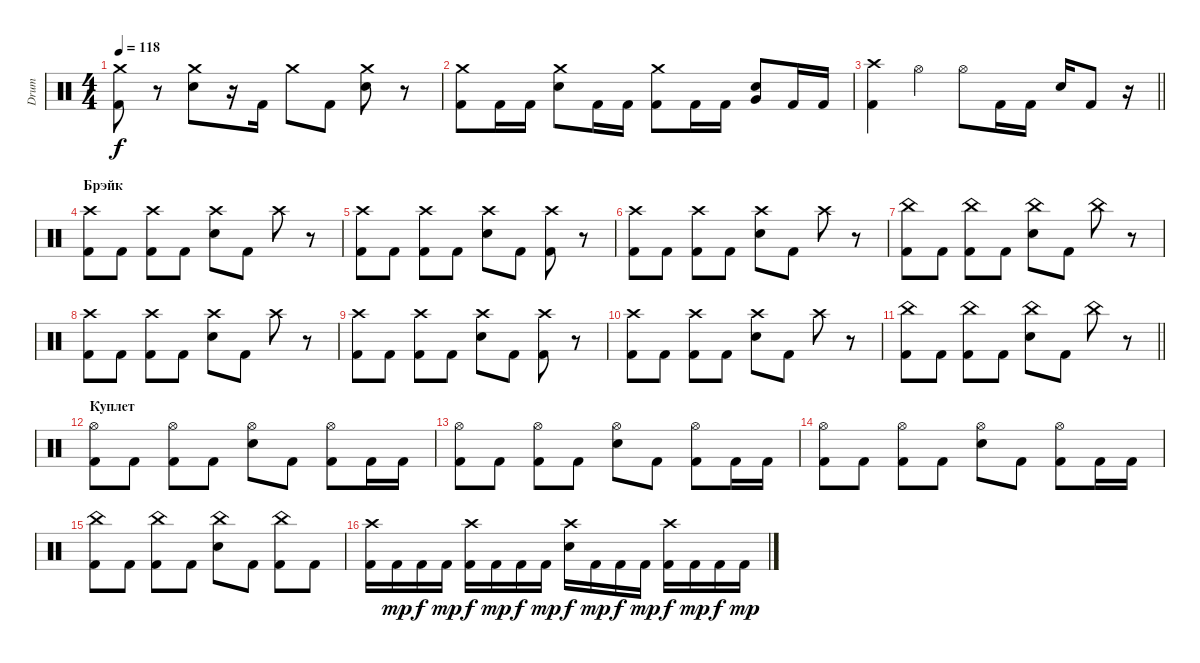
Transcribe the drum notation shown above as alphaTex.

\track ("Drum" "Drum") {instrument percussion}
\staff {score}
\articulation defaults
\ts (4 4)
\tempo 118
\clef neutral
\ks c
("Crash medium (hit)" "Kick (hit) 2").8{dy f} r.8 ("Crash medium (hit)" "Snare (hit) 2").8 r.16 "Kick (hit) 2".16 "Crash medium (hit)".8 "Kick (hit) 2".8 ("Crash medium (hit)" "Snare (hit) 2").8 r.8 |
("Crash medium (hit)" "Kick (hit) 2").8 "Kick (hit) 2".16 "Kick (hit) 2".16 ("Crash medium (hit)" "Snare (hit) 2").8 "Kick (hit) 2".16 "Kick (hit) 2".16 ("Crash medium (hit)" "Kick (hit) 2").8 "Kick (hit) 2".16 "Kick (hit) 2".16 ("Very Low Tom (hit)" "Snare (hit) 2").8 "Kick (hit) 2".16 "Kick (hit) 2".16 |
\barLineRight lightlight
("Crash high (hit)" "Kick (hit) 2").4 "Hi-Hat (open)".4 "Hi-Hat (open)".8 "Kick (hit) 2".16 "Kick (hit) 2".16 "Snare (hit) 2".16 "Kick (hit) 2".8 r.16 |
\section ("" "Брэйк")
("Crash high (hit)" "Kick (hit) 2").8 "Kick (hit) 2".8 ("Crash high (hit)" "Kick (hit) 2").8 "Kick (hit) 2".8 ("Crash high (hit)" "Snare (hit) 2").8 "Kick (hit) 2".8 "Crash high (hit)".8 r.8 |
("Crash high (hit)" "Kick (hit) 2").8 "Kick (hit) 2".8 ("Crash high (hit)" "Kick (hit) 2").8 "Kick (hit) 2".8 ("Crash high (hit)" "Snare (hit) 2").8 "Kick (hit) 2".8 ("Crash high (hit)" "Kick (hit) 2").8 r.8 |
("Crash high (hit)" "Kick (hit) 2").8 "Kick (hit) 2".8 ("Crash high (hit)" "Kick (hit) 2").8 "Kick (hit) 2".8 ("Crash high (hit)" "Snare (hit) 2").8 "Kick (hit) 2".8 "Crash high (hit)".8 r.8 |
("China (hit)" "Kick (hit) 2").8 "Kick (hit) 2".8 ("China (hit)" "Kick (hit) 2").8 "Kick (hit) 2".8 ("China (hit)" "Snare (hit) 2").8 "Kick (hit) 2".8 "China (hit)".8 r.8 |
("Crash high (hit)" "Kick (hit) 2").8 "Kick (hit) 2".8 ("Crash high (hit)" "Kick (hit) 2").8 "Kick (hit) 2".8 ("Crash high (hit)" "Snare (hit) 2").8 "Kick (hit) 2".8 "Crash high (hit)".8 r.8 |
("Crash high (hit)" "Kick (hit) 2").8 "Kick (hit) 2".8 ("Crash high (hit)" "Kick (hit) 2").8 "Kick (hit) 2".8 ("Crash high (hit)" "Snare (hit) 2").8 "Kick (hit) 2".8 ("Crash high (hit)" "Kick (hit) 2").8 r.8 |
("Crash high (hit)" "Kick (hit) 2").8 "Kick (hit) 2".8 ("Crash high (hit)" "Kick (hit) 2").8 "Kick (hit) 2".8 ("Crash high (hit)" "Snare (hit) 2").8 "Kick (hit) 2".8 "Crash high (hit)".8 r.8 |
\barLineRight lightlight
("China (hit)" "Kick (hit) 2").8 "Kick (hit) 2".8 ("China (hit)" "Kick (hit) 2").8 "Kick (hit) 2".8 ("China (hit)" "Snare (hit) 2").8 "Kick (hit) 2".8 "China (hit)".8 r.8 |
\section ("" "Куплет")
("Hi-Hat (open)" "Kick (hit) 2").8 "Kick (hit) 2".8 ("Hi-Hat (open)" "Kick (hit) 2").8 "Kick (hit) 2".8 ("Hi-Hat (open)" "Snare (hit) 2").8 "Kick (hit) 2".8 ("Hi-Hat (open)" "Kick (hit) 2").8 "Kick (hit) 2".16 "Kick (hit) 2".16 |
("Hi-Hat (open)" "Kick (hit) 2").8 "Kick (hit) 2".8 ("Hi-Hat (open)" "Kick (hit) 2").8 "Kick (hit) 2".8 ("Hi-Hat (open)" "Snare (hit) 2").8 "Kick (hit) 2".8 ("Hi-Hat (open)" "Kick (hit) 2").8 "Kick (hit) 2".16 "Kick (hit) 2".16 |
("Hi-Hat (open)" "Kick (hit) 2").8 "Kick (hit) 2".8 ("Hi-Hat (open)" "Kick (hit) 2").8 "Kick (hit) 2".8 ("Hi-Hat (open)" "Snare (hit) 2").8 "Kick (hit) 2".8 ("Hi-Hat (open)" "Kick (hit) 2").8 "Kick (hit) 2".16 "Kick (hit) 2".16 |
("China (hit)" "Kick (hit) 2").8 "Kick (hit) 2".8 ("China (hit)" "Kick (hit) 2").8 "Kick (hit) 2".8 ("China (hit)" "Snare (hit) 2").8 "Kick (hit) 2".8 ("China (hit)" "Kick (hit) 2").8 "Kick (hit) 2".8 |
("Crash high (hit)" "Kick (hit) 2").16 "Kick (hit) 2".16{dy mp} "Kick (hit) 2".16{dy f} "Kick (hit) 2".16{dy mp} ("Crash high (hit)" "Kick (hit) 2").16{dy f} "Kick (hit) 2".16{dy mp} "Kick (hit) 2".16{dy f} "Kick (hit) 2".16{dy mp} ("Crash high (hit)" "Snare (hit) 2").16{dy f} "Kick (hit) 2".16{dy mp} "Kick (hit) 2".16{dy f} "Kick (hit) 2".16{dy mp} ("Crash high (hit)" "Kick (hit) 2").16{dy f} "Kick (hit) 2".16{dy mp} "Kick (hit) 2".16{dy f} "Kick (hit) 2".16{dy mp}
